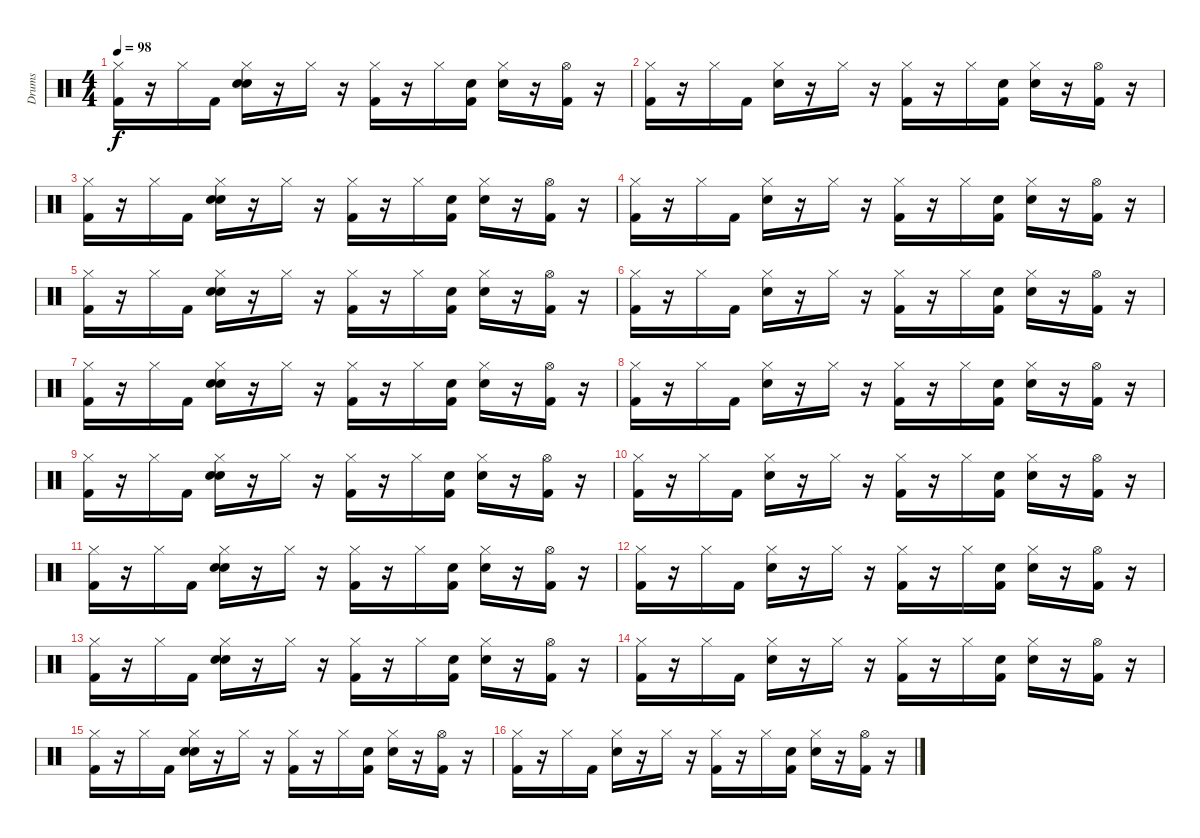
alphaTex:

\track ("Drums" "Drums") {instrument percussion}
\staff {score}
\articulation defaults
\ts (4 4)
\tempo 98
\clef neutral
\ks c
("Kick (hit) 2" "Hi-Hat (closed)").16{dy f} r.16 "Hi-Hat (closed)".16 "Kick (hit) 2".16 ("Snare (hit)" "Snare (hit) 2" "Hi-Hat (closed)").16 r.16 "Hi-Hat (closed)".16 r.16 ("Kick (hit) 2" "Hi-Hat (closed)").16 r.16 "Hi-Hat (closed)".16 ("Snare (hit)" "Kick (hit) 2").16 ("Snare (hit) 2" "Hi-Hat (closed)").16 r.16 ("Kick (hit) 2" "Hi-Hat (open)").16 r.16 |
("Kick (hit) 2" "Hi-Hat (closed)").16 r.16 "Hi-Hat (closed)".16 "Kick (hit) 2".16 ("Snare (hit) 2" "Hi-Hat (closed)").16 r.16 "Hi-Hat (closed)".16 r.16 ("Kick (hit) 2" "Hi-Hat (closed)").16 r.16 "Hi-Hat (closed)".16 ("Snare (hit)" "Kick (hit) 2").16 ("Snare (hit) 2" "Hi-Hat (closed)").16 r.16 ("Kick (hit) 2" "Hi-Hat (open)").16 r.16 |
("Kick (hit) 2" "Hi-Hat (closed)").16 r.16 "Hi-Hat (closed)".16 "Kick (hit) 2".16 ("Snare (hit)" "Snare (hit) 2" "Hi-Hat (closed)").16 r.16 "Hi-Hat (closed)".16 r.16 ("Kick (hit) 2" "Hi-Hat (closed)").16 r.16 "Hi-Hat (closed)".16 ("Snare (hit)" "Kick (hit) 2").16 ("Snare (hit) 2" "Hi-Hat (closed)").16 r.16 ("Kick (hit) 2" "Hi-Hat (open)").16 r.16 |
("Kick (hit) 2" "Hi-Hat (closed)").16 r.16 "Hi-Hat (closed)".16 "Kick (hit) 2".16 ("Snare (hit) 2" "Hi-Hat (closed)").16 r.16 "Hi-Hat (closed)".16 r.16 ("Kick (hit) 2" "Hi-Hat (closed)").16 r.16 "Hi-Hat (closed)".16 ("Snare (hit)" "Kick (hit) 2").16 ("Snare (hit) 2" "Hi-Hat (closed)").16 r.16 ("Kick (hit) 2" "Hi-Hat (open)").16 r.16 |
("Kick (hit) 2" "Hi-Hat (closed)").16 r.16 "Hi-Hat (closed)".16 "Kick (hit) 2".16 ("Snare (hit)" "Snare (hit) 2" "Hi-Hat (closed)").16 r.16 "Hi-Hat (closed)".16 r.16 ("Kick (hit) 2" "Hi-Hat (closed)").16 r.16 "Hi-Hat (closed)".16 ("Snare (hit)" "Kick (hit) 2").16 ("Snare (hit) 2" "Hi-Hat (closed)").16 r.16 ("Kick (hit) 2" "Hi-Hat (open)").16 r.16 |
("Kick (hit) 2" "Hi-Hat (closed)").16 r.16 "Hi-Hat (closed)".16 "Kick (hit) 2".16 ("Snare (hit) 2" "Hi-Hat (closed)").16 r.16 "Hi-Hat (closed)".16 r.16 ("Kick (hit) 2" "Hi-Hat (closed)").16 r.16 "Hi-Hat (closed)".16 ("Snare (hit)" "Kick (hit) 2").16 ("Snare (hit) 2" "Hi-Hat (closed)").16 r.16 ("Kick (hit) 2" "Hi-Hat (open)").16 r.16 |
("Kick (hit) 2" "Hi-Hat (closed)").16 r.16 "Hi-Hat (closed)".16 "Kick (hit) 2".16 ("Snare (hit)" "Snare (hit) 2" "Hi-Hat (closed)").16 r.16 "Hi-Hat (closed)".16 r.16 ("Kick (hit) 2" "Hi-Hat (closed)").16 r.16 "Hi-Hat (closed)".16 ("Snare (hit)" "Kick (hit) 2").16 ("Snare (hit) 2" "Hi-Hat (closed)").16 r.16 ("Kick (hit) 2" "Hi-Hat (open)").16 r.16 |
("Kick (hit) 2" "Hi-Hat (closed)").16 r.16 "Hi-Hat (closed)".16 "Kick (hit) 2".16 ("Snare (hit) 2" "Hi-Hat (closed)").16 r.16 "Hi-Hat (closed)".16 r.16 ("Kick (hit) 2" "Hi-Hat (closed)").16 r.16 "Hi-Hat (closed)".16 ("Snare (hit)" "Kick (hit) 2").16 ("Snare (hit) 2" "Hi-Hat (closed)").16 r.16 ("Kick (hit) 2" "Hi-Hat (open)").16 r.16 |
("Kick (hit) 2" "Hi-Hat (closed)").16 r.16 "Hi-Hat (closed)".16 "Kick (hit) 2".16 ("Snare (hit)" "Snare (hit) 2" "Hi-Hat (closed)").16 r.16 "Hi-Hat (closed)".16 r.16 ("Kick (hit) 2" "Hi-Hat (closed)").16 r.16 "Hi-Hat (closed)".16 ("Snare (hit)" "Kick (hit) 2").16 ("Snare (hit) 2" "Hi-Hat (closed)").16 r.16 ("Kick (hit) 2" "Hi-Hat (open)").16 r.16 |
("Kick (hit) 2" "Hi-Hat (closed)").16 r.16 "Hi-Hat (closed)".16 "Kick (hit) 2".16 ("Snare (hit) 2" "Hi-Hat (closed)").16 r.16 "Hi-Hat (closed)".16 r.16 ("Kick (hit) 2" "Hi-Hat (closed)").16 r.16 "Hi-Hat (closed)".16 ("Snare (hit)" "Kick (hit) 2").16 ("Snare (hit) 2" "Hi-Hat (closed)").16 r.16 ("Kick (hit) 2" "Hi-Hat (open)").16 r.16 |
("Kick (hit) 2" "Hi-Hat (closed)").16 r.16 "Hi-Hat (closed)".16 "Kick (hit) 2".16 ("Snare (hit)" "Snare (hit) 2" "Hi-Hat (closed)").16 r.16 "Hi-Hat (closed)".16 r.16 ("Kick (hit) 2" "Hi-Hat (closed)").16 r.16 "Hi-Hat (closed)".16 ("Snare (hit)" "Kick (hit) 2").16 ("Snare (hit) 2" "Hi-Hat (closed)").16 r.16 ("Kick (hit) 2" "Hi-Hat (open)").16 r.16 |
("Kick (hit) 2" "Hi-Hat (closed)").16 r.16 "Hi-Hat (closed)".16 "Kick (hit) 2".16 ("Snare (hit) 2" "Hi-Hat (closed)").16 r.16 "Hi-Hat (closed)".16 r.16 ("Kick (hit) 2" "Hi-Hat (closed)").16 r.16 "Hi-Hat (closed)".16 ("Snare (hit)" "Kick (hit) 2").16 ("Snare (hit) 2" "Hi-Hat (closed)").16 r.16 ("Kick (hit) 2" "Hi-Hat (open)").16 r.16 |
("Kick (hit) 2" "Hi-Hat (closed)").16 r.16 "Hi-Hat (closed)".16 "Kick (hit) 2".16 ("Snare (hit)" "Snare (hit) 2" "Hi-Hat (closed)").16 r.16 "Hi-Hat (closed)".16 r.16 ("Kick (hit) 2" "Hi-Hat (closed)").16 r.16 "Hi-Hat (closed)".16 ("Snare (hit)" "Kick (hit) 2").16 ("Snare (hit) 2" "Hi-Hat (closed)").16 r.16 ("Kick (hit) 2" "Hi-Hat (open)").16 r.16 |
("Kick (hit) 2" "Hi-Hat (closed)").16 r.16 "Hi-Hat (closed)".16 "Kick (hit) 2".16 ("Snare (hit) 2" "Hi-Hat (closed)").16 r.16 "Hi-Hat (closed)".16 r.16 ("Kick (hit) 2" "Hi-Hat (closed)").16 r.16 "Hi-Hat (closed)".16 ("Snare (hit)" "Kick (hit) 2").16 ("Snare (hit) 2" "Hi-Hat (closed)").16 r.16 ("Kick (hit) 2" "Hi-Hat (open)").16 r.16 |
("Kick (hit) 2" "Hi-Hat (closed)").16 r.16 "Hi-Hat (closed)".16 "Kick (hit) 2".16 ("Snare (hit)" "Snare (hit) 2" "Hi-Hat (closed)").16 r.16 "Hi-Hat (closed)".16 r.16 ("Kick (hit) 2" "Hi-Hat (closed)").16 r.16 "Hi-Hat (closed)".16 ("Snare (hit)" "Kick (hit) 2").16 ("Snare (hit) 2" "Hi-Hat (closed)").16 r.16 ("Kick (hit) 2" "Hi-Hat (open)").16 r.16 |
("Kick (hit) 2" "Hi-Hat (closed)").16 r.16 "Hi-Hat (closed)".16 "Kick (hit) 2".16 ("Snare (hit) 2" "Hi-Hat (closed)").16 r.16 "Hi-Hat (closed)".16 r.16 ("Kick (hit) 2" "Hi-Hat (closed)").16 r.16 "Hi-Hat (closed)".16 ("Snare (hit)" "Kick (hit) 2").16 ("Snare (hit) 2" "Hi-Hat (closed)").16 r.16 ("Kick (hit) 2" "Hi-Hat (open)").16 r.16
